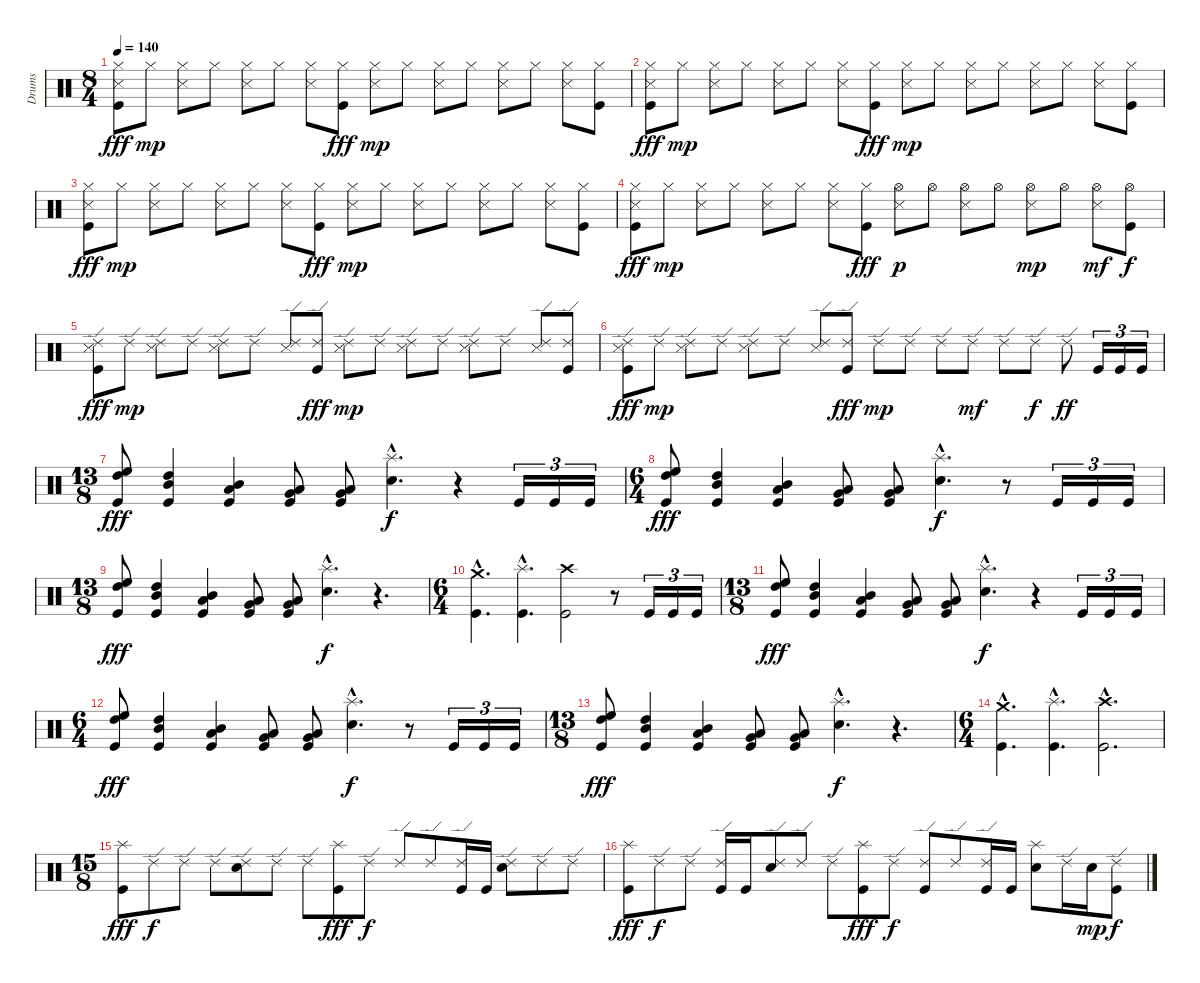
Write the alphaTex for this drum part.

\track ("Drums" "Drums") {instrument percussion}
\staff {score}
\articulation defaults
\ts (8 4)
\tempo 140
\clef neutral
\ks c
("Hi-Hat (closed)" "Snare (side stick) 3" "Kick (hit)").8{dy fff} "Hi-Hat (closed)".8{dy mp} ("Hi-Hat (closed)" "Snare (side stick) 3").8 "Hi-Hat (closed)".8 ("Hi-Hat (closed)" "Snare (side stick) 3").8 "Hi-Hat (closed)".8 ("Hi-Hat (closed)" "Snare (side stick) 3").8 ("Hi-Hat (closed)" "Kick (hit)").8{dy fff} ("Hi-Hat (closed)" "Snare (side stick) 3").8{dy mp} "Hi-Hat (closed)".8 ("Hi-Hat (closed)" "Snare (side stick) 3").8 "Hi-Hat (closed)".8 ("Hi-Hat (closed)" "Snare (side stick) 3").8 "Hi-Hat (closed)".8 ("Hi-Hat (closed)" "Snare (side stick) 3").8 ("Hi-Hat (closed)" "Kick (hit)").8 |
("Hi-Hat (closed)" "Snare (side stick) 3" "Kick (hit)").8{dy fff} "Hi-Hat (closed)".8{dy mp} ("Hi-Hat (closed)" "Snare (side stick) 3").8 "Hi-Hat (closed)".8 ("Hi-Hat (closed)" "Snare (side stick) 3").8 "Hi-Hat (closed)".8 ("Hi-Hat (closed)" "Snare (side stick) 3").8 ("Hi-Hat (closed)" "Kick (hit)").8{dy fff} ("Hi-Hat (closed)" "Snare (side stick) 3").8{dy mp} "Hi-Hat (closed)".8 ("Hi-Hat (closed)" "Snare (side stick) 3").8 "Hi-Hat (closed)".8 ("Hi-Hat (closed)" "Snare (side stick) 3").8 "Hi-Hat (closed)".8 ("Hi-Hat (closed)" "Snare (side stick) 3").8 ("Hi-Hat (closed)" "Kick (hit)").8 |
("Hi-Hat (closed)" "Snare (side stick) 3" "Kick (hit)").8{dy fff} "Hi-Hat (closed)".8{dy mp} ("Hi-Hat (closed)" "Snare (side stick) 3").8 "Hi-Hat (closed)".8 ("Hi-Hat (closed)" "Snare (side stick) 3").8 "Hi-Hat (closed)".8 ("Hi-Hat (closed)" "Snare (side stick) 3").8 ("Hi-Hat (closed)" "Kick (hit)").8{dy fff} ("Hi-Hat (closed)" "Snare (side stick) 3").8{dy mp} "Hi-Hat (closed)".8 ("Hi-Hat (closed)" "Snare (side stick) 3").8 "Hi-Hat (closed)".8 ("Hi-Hat (closed)" "Snare (side stick) 3").8 "Hi-Hat (closed)".8 ("Hi-Hat (closed)" "Snare (side stick) 3").8 ("Hi-Hat (closed)" "Kick (hit)").8 |
("Hi-Hat (closed)" "Snare (side stick) 3" "Kick (hit)").8{dy fff} "Hi-Hat (closed)".8{dy mp} ("Hi-Hat (closed)" "Snare (side stick) 3").8 "Hi-Hat (closed)".8 ("Hi-Hat (closed)" "Snare (side stick) 3").8 "Hi-Hat (closed)".8 ("Hi-Hat (closed)" "Snare (side stick) 3").8 ("Hi-Hat (closed)" "Kick (hit)").8{dy fff} ("Hi-Hat (open)" "Snare (side stick) 3").8{dy p} "Hi-Hat (open)".8 ("Hi-Hat (open)" "Snare (side stick) 3").8 "Hi-Hat (open)".8 ("Hi-Hat (open)" "Snare (side stick) 3").8{dy mp} "Hi-Hat (open)".8 ("Hi-Hat (open)" "Snare (side stick) 3").8{dy mf} ("Hi-Hat (open)" "Kick (hit)").8{dy f} |
("Ride (edge) 2" "Snare (side stick) 3" "Kick (hit)").8{dy fff} "Ride (edge) 2".8{dy mp} ("Ride (edge) 2" "Snare (side stick) 3").8 "Ride (edge) 2".8 ("Ride (edge) 2" "Snare (side stick) 3").8 "Ride (edge) 2".8 ("Ride (edge) 2" "Snare (side stick) 3").8 ("Ride (edge) 2" "Kick (hit)").8{dy fff} ("Ride (edge) 2" "Snare (side stick) 3").8{dy mp} "Ride (edge) 2".8 ("Ride (edge) 2" "Snare (side stick) 3").8 "Ride (edge) 2".8 ("Ride (edge) 2" "Snare (side stick) 3").8 "Ride (edge) 2".8 ("Ride (edge) 2" "Snare (side stick) 3").8 ("Ride (edge) 2" "Kick (hit)").8 |
("Ride (edge) 2" "Snare (side stick) 3" "Kick (hit)").8{dy fff} "Ride (edge) 2".8{dy mp} ("Ride (edge) 2" "Snare (side stick) 3").8 "Ride (edge) 2".8 ("Ride (edge) 2" "Snare (side stick) 3").8 "Ride (edge) 2".8 ("Ride (edge) 2" "Snare (side stick) 3").8 ("Ride (edge) 2" "Kick (hit)").8{dy fff} "Ride (edge) 2".8{dy mp} "Ride (edge) 2".8 "Ride (edge) 2".8 "Ride (edge) 2".8{dy mf} "Ride (edge) 2".8 "Ride (edge) 2".8{dy f} "Ride (edge) 2".8{dy ff} "Kick (hit)".16{tu (3 2)} "Kick (hit)".16{tu (3 2)} "Kick (hit)".16{tu (3 2)} |
\ts (13 8)
("Kick (hit)" "High Tom (hit)" "High Floor Tom (hit)").8{dy fff} ("Kick (hit)" "Mid Tom (hit)" "High Tom (hit)").4 ("Kick (hit)" "Low Tom (hit)" "Mid Tom (hit)").4 ("Kick (hit)" "Very Low Tom (hit)" "Low Floor Tom (hit)").8 ("Kick (hit)" "Very Low Tom (hit)" "Low Floor Tom (hit)").8 ("Splash (hit)"{hac} "Snare (hit) 2"{hac}).4{d dy f} r.4 "Kick (hit)".16{tu (3 2)} "Kick (hit)".16{tu (3 2)} "Kick (hit)".16{tu (3 2)} |
\ts (6 4)
("Kick (hit)" "High Tom (hit)" "High Floor Tom (hit)").8{dy fff} ("Kick (hit)" "Mid Tom (hit)" "High Tom (hit)").4 ("Kick (hit)" "Low Tom (hit)" "Mid Tom (hit)").4 ("Kick (hit)" "Very Low Tom (hit)" "Low Floor Tom (hit)").8 ("Kick (hit)" "Very Low Tom (hit)" "Low Floor Tom (hit)").8 ("Splash (hit)"{hac} "Snare (hit) 2"{hac}).4{d dy f} r.8 "Kick (hit)".16{tu (3 2)} "Kick (hit)".16{tu (3 2)} "Kick (hit)".16{tu (3 2)} |
\ts (13 8)
("Kick (hit)" "High Tom (hit)" "High Floor Tom (hit)").8{dy fff} ("Kick (hit)" "Mid Tom (hit)" "High Tom (hit)").4 ("Kick (hit)" "Low Tom (hit)" "Mid Tom (hit)").4 ("Kick (hit)" "Very Low Tom (hit)" "Low Floor Tom (hit)").8 ("Kick (hit)" "Very Low Tom (hit)" "Low Floor Tom (hit)").8 ("Splash (hit)"{hac} "Snare (hit) 2"{hac}).4{d dy f} r.4{d} |
\ts (6 4)
("Crash medium (hit)"{hac} "Kick (hit)"{hac}).4{d} ("Splash (hit)"{hac} "Kick (hit)"{hac}).4{d} ("Crash high (hit)" "Kick (hit)").2 r.8 "Kick (hit)".16{tu (3 2)} "Kick (hit)".16{tu (3 2)} "Kick (hit)".16{tu (3 2)} |
\ts (13 8)
("Kick (hit)" "High Tom (hit)" "High Floor Tom (hit)").8{dy fff} ("Kick (hit)" "Mid Tom (hit)" "High Tom (hit)").4 ("Kick (hit)" "Low Tom (hit)" "Mid Tom (hit)").4 ("Kick (hit)" "Very Low Tom (hit)" "Low Floor Tom (hit)").8 ("Kick (hit)" "Very Low Tom (hit)" "Low Floor Tom (hit)").8 ("Splash (hit)"{hac} "Snare (hit) 2"{hac}).4{d dy f} r.4 "Kick (hit)".16{tu (3 2)} "Kick (hit)".16{tu (3 2)} "Kick (hit)".16{tu (3 2)} |
\ts (6 4)
("Kick (hit)" "High Tom (hit)" "High Floor Tom (hit)").8{dy fff} ("Kick (hit)" "Mid Tom (hit)" "High Tom (hit)").4 ("Kick (hit)" "Low Tom (hit)" "Mid Tom (hit)").4 ("Kick (hit)" "Very Low Tom (hit)" "Low Floor Tom (hit)").8 ("Kick (hit)" "Very Low Tom (hit)" "Low Floor Tom (hit)").8 ("Splash (hit)"{hac} "Snare (hit) 2"{hac}).4{d dy f} r.8 "Kick (hit)".16{tu (3 2)} "Kick (hit)".16{tu (3 2)} "Kick (hit)".16{tu (3 2)} |
\ts (13 8)
("Kick (hit)" "High Tom (hit)" "High Floor Tom (hit)").8{dy fff} ("Kick (hit)" "Mid Tom (hit)" "High Tom (hit)").4 ("Kick (hit)" "Low Tom (hit)" "Mid Tom (hit)").4 ("Kick (hit)" "Very Low Tom (hit)" "Low Floor Tom (hit)").8 ("Kick (hit)" "Very Low Tom (hit)" "Low Floor Tom (hit)").8 ("Splash (hit)"{hac} "Snare (hit) 2"{hac}).4{d dy f} r.4{d} |
\ts (6 4)
("Crash medium (hit)"{hac} "Kick (hit)"{hac}).4{d} ("Splash (hit)"{hac} "Kick (hit)"{hac}).4{d} ("Crash high (hit)"{hac} "Kick (hit)"{hac}).2{d} |
\ts (15 8)
("Splash (hit)" "Kick (hit)").8{dy fff} "Ride (edge) 2".8{dy f} "Ride (edge) 2".8 "Ride (edge) 2".8 ("Ride (edge) 2" "Snare (hit) 2").8 "Ride (edge) 2".8 "Ride (edge) 2".8 ("Splash (hit)" "Kick (hit)").8{dy fff} "Ride (edge) 2".8{dy f} "Ride (edge) 2".8 "Ride (edge) 2".8 ("Ride (edge) 2" "Kick (hit)").16 "Kick (hit)".16 ("Ride (edge) 2" "Snare (hit) 2").8 "Ride (edge) 2".8 "Ride (edge) 2".8 |
("Splash (hit)" "Kick (hit)").8{dy fff} "Ride (edge) 2".8{dy f} "Ride (edge) 2".8 ("Ride (edge) 2" "Kick (hit)").16 "Kick (hit)".16 ("Ride (edge) 2" "Snare (hit) 2").8 "Ride (edge) 2".8 "Ride (edge) 2".8 ("Splash (hit)" "Kick (hit)").8{dy fff} "Ride (edge) 2".8{dy f} ("Ride (edge) 2" "Kick (hit)").8 "Ride (edge) 2".8 ("Ride (edge) 2" "Kick (hit)").16 "Kick (hit)".16 ("Splash (hit)" "Snare (hit) 2").8 "Ride (edge) 2".16 "Snare (hit) 2".16{dy mp} ("Ride (edge) 2" "Kick (hit)").8{dy f}
